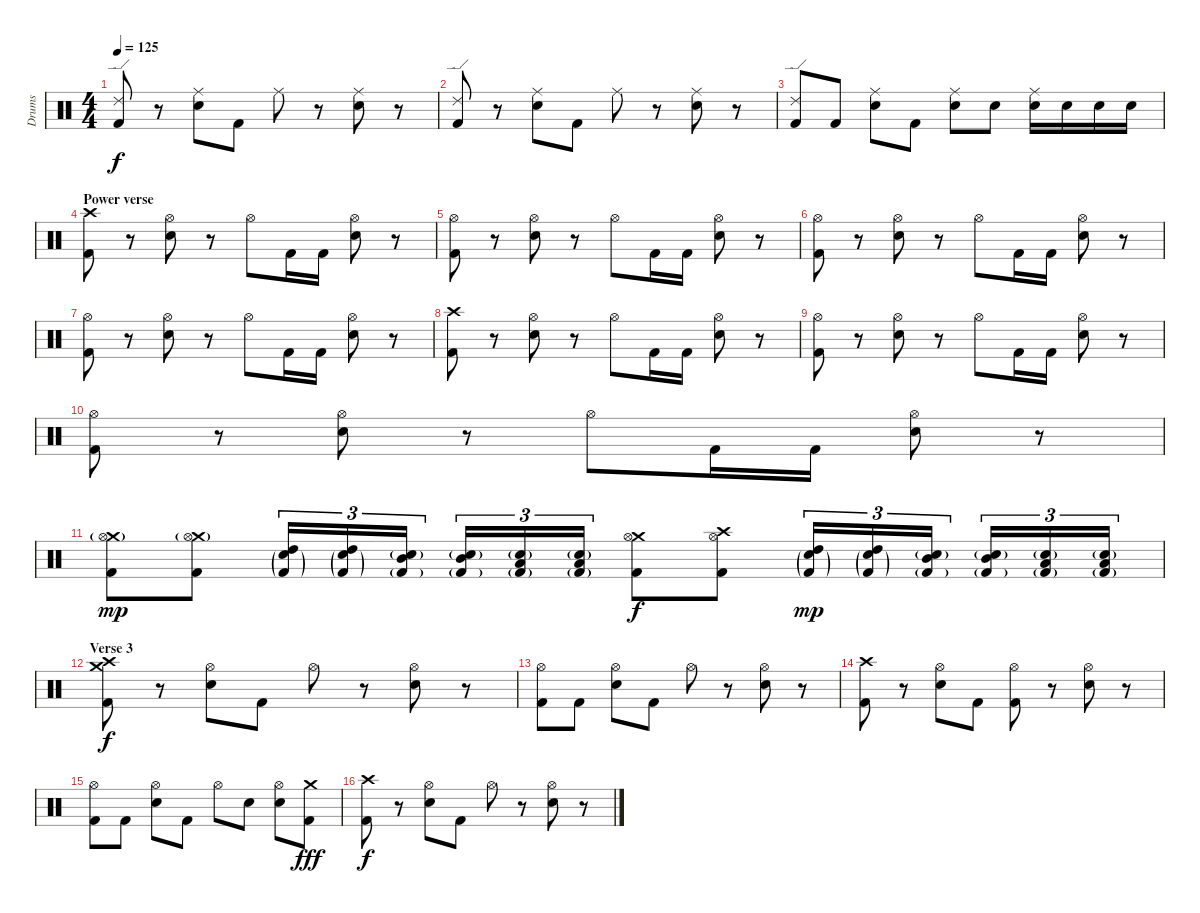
\track ("Drums" "Drums") {instrument percussion}
\staff {score}
\articulation defaults
\ts (4 4)
\tempo 125
\clef neutral
\ks c
("Ride (edge) 2" "Kick (hit) 2").8{dy f} r.8 ("Ride (middle)" "Snare (hit) 2").8 "Kick (hit) 2".8 "Ride (middle)".8 r.8 ("Ride (middle)" "Snare (hit) 2").8 r.8 |
("Ride (edge) 2" "Kick (hit) 2").8 r.8 ("Ride (middle)" "Snare (hit) 2").8 "Kick (hit) 2".8 "Ride (middle)".8 r.8 ("Ride (middle)" "Snare (hit) 2").8 r.8 |
("Ride (edge) 2" "Kick (hit) 2").8 "Kick (hit) 2".8 ("Ride (middle)" "Snare (hit) 2").8 "Kick (hit) 2".8 ("Ride (middle)" "Snare (hit) 2").8 "Snare (hit) 2".8 ("Ride (middle)" "Snare (hit) 2").16 "Snare (hit) 2".16 "Snare (hit) 2".16 "Snare (hit) 2".16 |
\section ("" "Power verse")
("Crash high (hit)" "Kick (hit) 2").8 r.8 ("Hi-Hat (open)" "Snare (hit) 2").8 r.8 "Hi-Hat (open)".8 "Kick (hit) 2".16 "Kick (hit) 2".16 ("Hi-Hat (open)" "Snare (hit) 2").8 r.8 |
("Hi-Hat (open)" "Kick (hit) 2").8 r.8 ("Hi-Hat (open)" "Snare (hit) 2").8 r.8 "Hi-Hat (open)".8 "Kick (hit) 2".16 "Kick (hit) 2".16 ("Hi-Hat (open)" "Snare (hit) 2").8 r.8 |
("Hi-Hat (open)" "Kick (hit) 2").8 r.8 ("Hi-Hat (open)" "Snare (hit) 2").8 r.8 "Hi-Hat (open)".8 "Kick (hit) 2".16 "Kick (hit) 2".16 ("Hi-Hat (open)" "Snare (hit) 2").8 r.8 |
("Hi-Hat (open)" "Kick (hit) 2").8 r.8 ("Hi-Hat (open)" "Snare (hit) 2").8 r.8 "Hi-Hat (open)".8 "Kick (hit) 2".16 "Kick (hit) 2".16 ("Hi-Hat (open)" "Snare (hit) 2").8 r.8 |
("Crash high (hit)" "Kick (hit) 2").8 r.8 ("Hi-Hat (open)" "Snare (hit) 2").8 r.8 "Hi-Hat (open)".8 "Kick (hit) 2".16 "Kick (hit) 2".16 ("Hi-Hat (open)" "Snare (hit) 2").8 r.8 |
("Hi-Hat (open)" "Kick (hit) 2").8 r.8 ("Hi-Hat (open)" "Snare (hit) 2").8 r.8 "Hi-Hat (open)".8 "Kick (hit) 2".16 "Kick (hit) 2".16 ("Hi-Hat (open)" "Snare (hit) 2").8 r.8 |
("Hi-Hat (open)" "Kick (hit) 2").8 r.8 ("Hi-Hat (open)" "Snare (hit) 2").8 r.8 "Hi-Hat (open)".8 "Kick (hit) 2".16 "Kick (hit) 2".16 ("Hi-Hat (open)" "Snare (hit) 2").8 r.8 |
("Crash medium (hit)"{g} "Kick (hit) 2" "Hi-Hat (open)").8{dy mp} ("Crash medium (hit)"{g} "Kick (hit) 2" "Hi-Hat (open)").8 ("High Tom (hit)" "Kick (hit) 2"{g} "Snare (hit) 2"{g}).16{tu (3 2)} ("High Tom (hit)" "Kick (hit) 2"{g} "Snare (hit) 2"{g}).16{tu (3 2)} ("Mid Tom (hit)" "Kick (hit) 2"{g} "Snare (hit) 2"{g}).16{tu (3 2)} ("Mid Tom (hit)" "Kick (hit) 2"{g} "Snare (hit) 2"{g}).16{tu (3 2)} ("Low Tom (hit)" "Kick (hit) 2"{g} "Snare (hit) 2"{g}).16{tu (3 2)} ("Low Tom (hit)" "Kick (hit) 2"{g} "Snare (hit) 2"{g}).16{tu (3 2)} ("Crash medium (hit)" "Kick (hit) 2" "Hi-Hat (open)").8{dy f} ("Crash high (hit)" "Kick (hit) 2" "Hi-Hat (open)").8 ("High Tom (hit)" "Kick (hit) 2"{g} "Snare (hit) 2"{g}).16{tu (3 2) dy mp} ("High Tom (hit)" "Kick (hit) 2"{g} "Snare (hit) 2"{g}).16{tu (3 2)} ("Mid Tom (hit)" "Kick (hit) 2"{g} "Snare (hit) 2"{g}).16{tu (3 2)} ("Mid Tom (hit)" "Kick (hit) 2"{g} "Snare (hit) 2"{g}).16{tu (3 2)} ("Low Tom (hit)" "Kick (hit) 2"{g} "Snare (hit) 2"{g}).16{tu (3 2)} ("Low Tom (hit)" "Kick (hit) 2"{g} "Snare (hit) 2"{g}).16{tu (3 2)} |
\section ("" "Verse 3")
("Crash high (hit)" "Kick (hit) 2" "Crash medium (hit)").8{dy f} r.8 ("Hi-Hat (open)" "Snare (hit) 2").8 "Kick (hit) 2".8 "Hi-Hat (open)".8 r.8 ("Hi-Hat (open)" "Snare (hit) 2").8 r.8 |
("Hi-Hat (open)" "Kick (hit) 2").8 "Kick (hit) 2".8 ("Hi-Hat (open)" "Snare (hit) 2").8 "Kick (hit) 2".8 "Hi-Hat (open)".8 r.8 ("Hi-Hat (open)" "Snare (hit) 2").8 r.8 |
("Crash high (hit)" "Kick (hit) 2").8 r.8 ("Hi-Hat (open)" "Snare (hit) 2").8 "Kick (hit) 2".8 ("Hi-Hat (open)" "Kick (hit) 2").8 r.8 ("Hi-Hat (open)" "Snare (hit) 2").8 r.8 |
("Hi-Hat (open)" "Kick (hit) 2").8 "Kick (hit) 2".8 ("Hi-Hat (open)" "Snare (hit) 2").8 "Kick (hit) 2".8 "Hi-Hat (open)".8 "Snare (hit) 2".8 ("Hi-Hat (open)" "Snare (hit) 2").8 ("Crash medium (hit)" "Kick (hit) 2").8{dy fff} |
("Crash high (hit)" "Kick (hit) 2").8{dy f} r.8 ("Hi-Hat (open)" "Snare (hit) 2").8 "Kick (hit) 2".8 "Hi-Hat (open)".8 r.8 ("Hi-Hat (open)" "Snare (hit) 2").8 r.8
